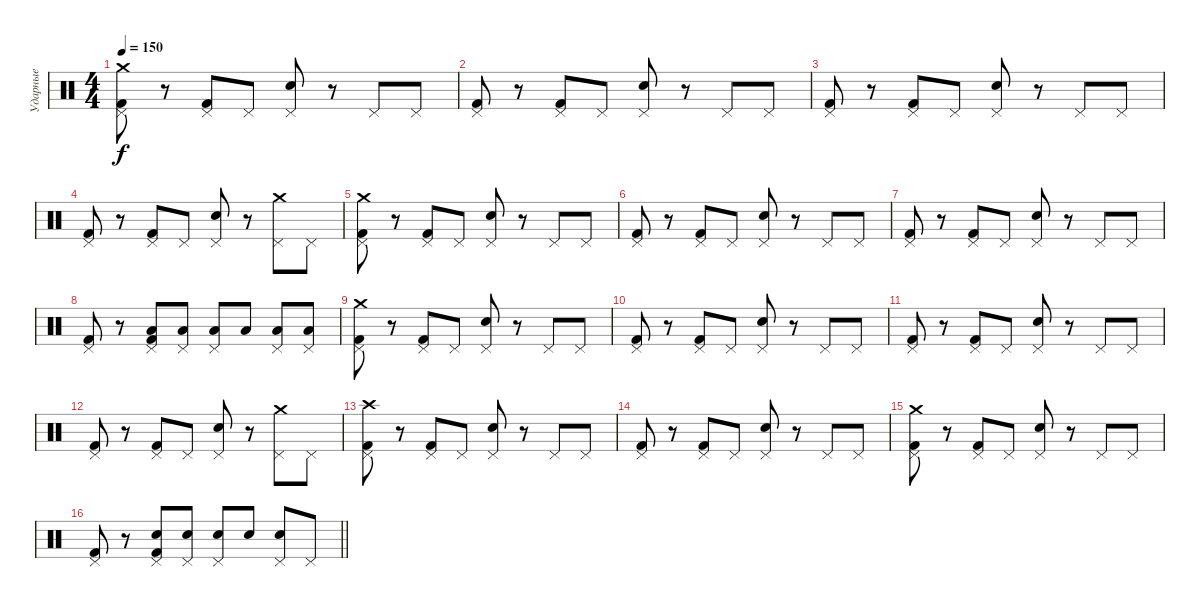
\track ("Ударные" "Ударные") {instrument percussion}
\staff {score}
\articulation defaults
\ts (4 4)
\tempo 150
\clef neutral
\ks c
("Crash medium (hit)" "Kick (hit) 2" "Pedal Hi-Hat (hit)").8{dy f} r.8 ("Kick (hit) 2" "Pedal Hi-Hat (hit)").8 "Pedal Hi-Hat (hit)".8 ("Pedal Hi-Hat (hit)" "Electric Snare (hit)").8 r.8 "Pedal Hi-Hat (hit)".8 "Pedal Hi-Hat (hit)".8 |
("Kick (hit) 2" "Pedal Hi-Hat (hit)").8 r.8 ("Kick (hit) 2" "Pedal Hi-Hat (hit)").8 "Pedal Hi-Hat (hit)".8 ("Pedal Hi-Hat (hit)" "Electric Snare (hit)").8 r.8 "Pedal Hi-Hat (hit)".8 "Pedal Hi-Hat (hit)".8 |
("Kick (hit) 2" "Pedal Hi-Hat (hit)").8 r.8 ("Kick (hit) 2" "Pedal Hi-Hat (hit)").8 "Pedal Hi-Hat (hit)".8 ("Pedal Hi-Hat (hit)" "Electric Snare (hit)").8 r.8 "Pedal Hi-Hat (hit)".8 "Pedal Hi-Hat (hit)".8 |
("Kick (hit) 2" "Pedal Hi-Hat (hit)").8 r.8 ("Kick (hit) 2" "Pedal Hi-Hat (hit)").8 "Pedal Hi-Hat (hit)".8 ("Pedal Hi-Hat (hit)" "Electric Snare (hit)").8 r.8 ("Crash medium (hit)" "Pedal Hi-Hat (hit)").8 "Pedal Hi-Hat (hit)".8 |
("Crash medium (hit)" "Kick (hit) 2" "Pedal Hi-Hat (hit)").8 r.8 ("Kick (hit) 2" "Pedal Hi-Hat (hit)").8 "Pedal Hi-Hat (hit)".8 ("Pedal Hi-Hat (hit)" "Electric Snare (hit)").8 r.8 "Pedal Hi-Hat (hit)".8 "Pedal Hi-Hat (hit)".8 |
("Kick (hit) 2" "Pedal Hi-Hat (hit)").8 r.8 ("Kick (hit) 2" "Pedal Hi-Hat (hit)").8 "Pedal Hi-Hat (hit)".8 ("Pedal Hi-Hat (hit)" "Electric Snare (hit)").8 r.8 "Pedal Hi-Hat (hit)".8 "Pedal Hi-Hat (hit)".8 |
("Kick (hit) 2" "Pedal Hi-Hat (hit)").8 r.8 ("Kick (hit) 2" "Pedal Hi-Hat (hit)").8 "Pedal Hi-Hat (hit)".8 ("Pedal Hi-Hat (hit)" "Electric Snare (hit)").8 r.8 "Pedal Hi-Hat (hit)".8 "Pedal Hi-Hat (hit)".8 |
("Kick (hit) 2" "Pedal Hi-Hat (hit)").8 r.8 ("Low Tom (hit)" "Kick (hit) 2" "Pedal Hi-Hat (hit)").8 ("Low Tom (hit)" "Pedal Hi-Hat (hit)").8 ("Low Tom (hit)" "Pedal Hi-Hat (hit)").8 "Low Tom (hit)".8 ("Low Tom (hit)" "Pedal Hi-Hat (hit)").8 ("Low Tom (hit)" "Pedal Hi-Hat (hit)").8 |
("Crash medium (hit)" "Kick (hit) 2" "Pedal Hi-Hat (hit)").8 r.8 ("Kick (hit) 2" "Pedal Hi-Hat (hit)").8 "Pedal Hi-Hat (hit)".8 ("Pedal Hi-Hat (hit)" "Electric Snare (hit)").8 r.8 "Pedal Hi-Hat (hit)".8 "Pedal Hi-Hat (hit)".8 |
("Kick (hit) 2" "Pedal Hi-Hat (hit)").8 r.8 ("Kick (hit) 2" "Pedal Hi-Hat (hit)").8 "Pedal Hi-Hat (hit)".8 ("Pedal Hi-Hat (hit)" "Electric Snare (hit)").8 r.8 "Pedal Hi-Hat (hit)".8 "Pedal Hi-Hat (hit)".8 |
("Kick (hit) 2" "Pedal Hi-Hat (hit)").8 r.8 ("Kick (hit) 2" "Pedal Hi-Hat (hit)").8 "Pedal Hi-Hat (hit)".8 ("Pedal Hi-Hat (hit)" "Electric Snare (hit)").8 r.8 "Pedal Hi-Hat (hit)".8 "Pedal Hi-Hat (hit)".8 |
("Kick (hit) 2" "Pedal Hi-Hat (hit)").8 r.8 ("Kick (hit) 2" "Pedal Hi-Hat (hit)").8 "Pedal Hi-Hat (hit)".8 ("Pedal Hi-Hat (hit)" "Electric Snare (hit)").8 r.8 ("Crash medium (hit)" "Pedal Hi-Hat (hit)").8 "Pedal Hi-Hat (hit)".8 |
("Crash high (hit)" "Kick (hit) 2" "Pedal Hi-Hat (hit)").8 r.8 ("Kick (hit) 2" "Pedal Hi-Hat (hit)").8 "Pedal Hi-Hat (hit)".8 ("Pedal Hi-Hat (hit)" "Electric Snare (hit)").8 r.8 "Pedal Hi-Hat (hit)".8 "Pedal Hi-Hat (hit)".8 |
("Kick (hit) 2" "Pedal Hi-Hat (hit)").8 r.8 ("Kick (hit) 2" "Pedal Hi-Hat (hit)").8 "Pedal Hi-Hat (hit)".8 ("Pedal Hi-Hat (hit)" "Electric Snare (hit)").8 r.8 "Pedal Hi-Hat (hit)".8 "Pedal Hi-Hat (hit)".8 |
("Crash medium (hit)" "Kick (hit) 2" "Pedal Hi-Hat (hit)").8 r.8 ("Kick (hit) 2" "Pedal Hi-Hat (hit)").8 "Pedal Hi-Hat (hit)".8 ("Pedal Hi-Hat (hit)" "Electric Snare (hit)").8 r.8 "Pedal Hi-Hat (hit)".8 "Pedal Hi-Hat (hit)".8 |
\barLineRight lightlight
("Kick (hit) 2" "Pedal Hi-Hat (hit)").8 r.8 ("Kick (hit) 2" "Pedal Hi-Hat (hit)" "Electric Snare (hit)").8 ("Pedal Hi-Hat (hit)" "Electric Snare (hit)").8 ("Pedal Hi-Hat (hit)" "Electric Snare (hit)").8 "Electric Snare (hit)".8 ("Pedal Hi-Hat (hit)" "Electric Snare (hit)").8 "Pedal Hi-Hat (hit)".8
